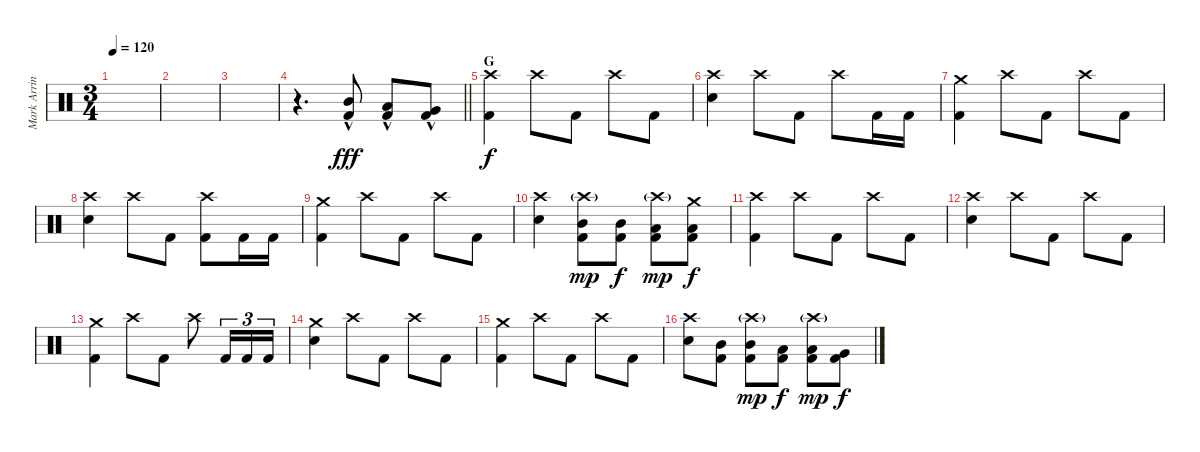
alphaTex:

\track ("Mark Arrington Drums" "Mark Arrin") {instrument percussion}
\staff {score}
\articulation defaults
\ts (3 4)
\tempo 120
\clef neutral
\ks c
|
|
|
\barLineRight lightlight
r.4{d} ("Mid Tom (hit)"{hac} "Kick (hit) 2").8{dy fff} ("Low Tom (hit)"{hac} "Kick (hit) 2").8 ("Very Low Tom (hit)"{hac} "Kick (hit) 2").8 |
\section ("" "G")
("Crash high (hit)" "Kick (hit) 2").4{dy f} "Crash high (hit)".8 "Kick (hit) 2".8 "Crash high (hit)".8 "Kick (hit) 2".8 |
("Crash high (hit)" "Electric Snare (hit)").4 "Crash high (hit)".8 "Kick (hit) 2".8 "Crash high (hit)".8 "Kick (hit) 2".16 "Kick (hit) 2".16 |
("Crash medium (hit)" "Kick (hit) 2").4 "Crash high (hit)".8 "Kick (hit) 2".8 "Crash high (hit)".8 "Kick (hit) 2".8 |
("Crash high (hit)" "Electric Snare (hit)").4 "Crash high (hit)".8 "Kick (hit) 2".8 ("Crash high (hit)" "Kick (hit) 2").8 "Kick (hit) 2".16 "Kick (hit) 2".16 |
("Crash medium (hit)" "Kick (hit) 2").4 "Crash high (hit)".8 "Kick (hit) 2".8 "Crash high (hit)".8 "Kick (hit) 2".8 |
("Crash high (hit)" "Electric Snare (hit)").4 ("Crash high (hit)"{g} "Mid Tom (hit)" "Kick (hit) 2").8{dy mp} ("Mid Tom (hit)" "Kick (hit) 2").8{dy f} ("Crash high (hit)"{g} "Low Tom (hit)" "Kick (hit) 2").8{dy mp} ("Crash medium (hit)" "Low Tom (hit)" "Kick (hit) 2").8{dy f} |
("Crash high (hit)" "Kick (hit) 2").4 "Crash high (hit)".8 "Kick (hit) 2".8 "Crash high (hit)".8 "Kick (hit) 2".8 |
("Crash high (hit)" "Electric Snare (hit)").4 "Crash high (hit)".8 "Kick (hit) 2".8 "Crash high (hit)".8 "Kick (hit) 2".8 |
("Crash medium (hit)" "Kick (hit) 2").4 "Crash high (hit)".8 "Kick (hit) 2".8 "Crash high (hit)".8 "Kick (hit) 2".16{tu (3 2)} "Kick (hit) 2".16{tu (3 2)} "Kick (hit) 2".16{tu (3 2)} |
("Crash medium (hit)" "Electric Snare (hit)").4 "Crash high (hit)".8 "Kick (hit) 2".8 "Crash high (hit)".8 "Kick (hit) 2".8 |
("Crash medium (hit)" "Kick (hit) 2").4 "Crash high (hit)".8 "Kick (hit) 2".8 "Crash high (hit)".8 "Kick (hit) 2".8 |
("Crash high (hit)" "Electric Snare (hit)").8 ("Mid Tom (hit)" "Kick (hit) 2").8 ("Crash high (hit)"{g} "Mid Tom (hit)" "Kick (hit) 2").8{dy mp} ("Low Tom (hit)" "Kick (hit) 2").8{dy f} ("Crash high (hit)"{g} "Low Tom (hit)" "Kick (hit) 2").8{dy mp} ("Very Low Tom (hit)" "Kick (hit) 2").8{dy f}
